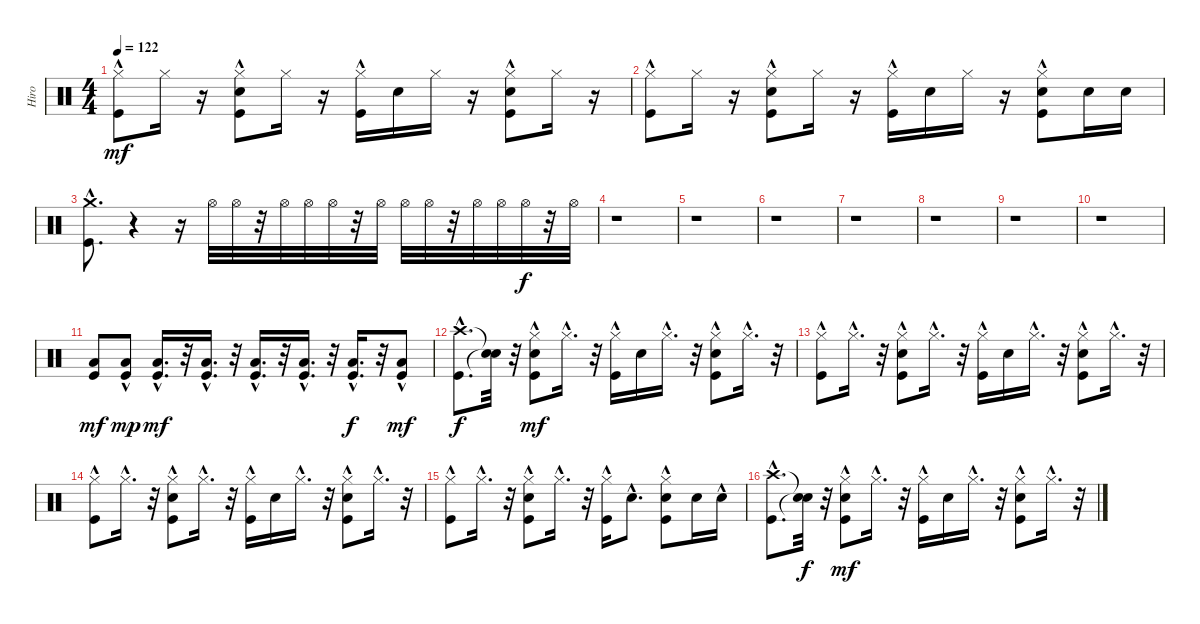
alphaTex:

\track ("Hiro" "Hiro") {instrument percussion}
\staff {score}
\articulation defaults
\ts (4 4)
\tempo 122
\clef neutral
\ks c
("Hi-Hat (closed)" "Kick (hit)"{hac}).8{dy mf} "Hi-Hat (closed)".16 r.16 ("Electric Snare (hit)" "Hi-Hat (closed)" "Kick (hit)"{hac}).8 "Hi-Hat (closed)".16 r.16 ("Hi-Hat (closed)" "Kick (hit)"{hac}).16 "Electric Snare (hit)".16 "Hi-Hat (closed)".16 r.16 ("Electric Snare (hit)"{hac} "Hi-Hat (closed)" "Kick (hit)"{hac}).8 "Hi-Hat (closed)".16 r.16 |
("Hi-Hat (closed)" "Kick (hit)"{hac}).8 "Hi-Hat (closed)".16 r.16 ("Electric Snare (hit)" "Hi-Hat (closed)" "Kick (hit)"{hac}).8 "Hi-Hat (closed)".16 r.16 ("Hi-Hat (closed)" "Kick (hit)"{hac}).16 "Electric Snare (hit)".16 "Hi-Hat (closed)".16 r.16 ("Electric Snare (hit)" "Hi-Hat (closed)"{hac} "Kick (hit)"{hac}).8 "Electric Snare (hit)".16 "Electric Snare (hit)".16 |
("Crash medium (hit)" "Kick (hit)"{hac}).8{d} r.4 r.16 "Hi-Hat (open)".32 "Hi-Hat (open)".32 r.32 "Hi-Hat (open)".32 "Hi-Hat (open)".32 "Hi-Hat (open)".32 r.32 "Hi-Hat (open)".32 "Hi-Hat (open)".32 "Hi-Hat (open)".32 r.32 "Hi-Hat (open)".32 "Hi-Hat (open)".32 "Hi-Hat (open)".32{dy f} r.32 "Hi-Hat (open)".32 |
r.1 |
r.1 |
r.1 |
r.1 |
r.1 |
r.1 |
r.1 |
("Low Tom (hit)" "Kick (hit)").8{dy mf} ("Low Tom (hit)"{hac} "Kick (hit)").8{dy mp} ("Low Tom (hit)"{hac} "Kick (hit)"{hac}).16{d dy mf} r.32 ("Low Tom (hit)"{hac} "Kick (hit)"{hac}).16{d} r.32 ("Low Tom (hit)"{hac} "Kick (hit)"{hac}).16{d} r.32 ("Low Tom (hit)"{hac} "Kick (hit)"{hac}).16{d} r.32 ("Low Tom (hit)"{hac} "Kick (hit)"{hac}).16{d dy f} r.32 ("Low Tom (hit)"{hac} "Kick (hit)").8{dy mf} |
("Kick (hit)"{hac} "Crash high (hit)"{hac}).8{d dy f} ("Snare (hit)"{t} "Snare (hit)"{t}).32 r.32 ("Kick (hit)"{hac} "Electric Snare (hit)"{hac} "Hi-Hat (closed)").8{dy mf} "Hi-Hat (closed)"{hac}.16{d} r.32 ("Kick (hit)"{hac} "Hi-Hat (closed)"{hac}).16 "Electric Snare (hit)".16 "Hi-Hat (closed)"{hac}.16{d} r.32 ("Electric Snare (hit)"{hac} "Hi-Hat (closed)"{hac} "Kick (hit)"{hac}).8 "Hi-Hat (closed)"{hac}.16{d} r.32 |
("Kick (hit)"{hac} "Hi-Hat (closed)"{hac}).8 "Hi-Hat (closed)"{hac}.16{d} r.32 ("Kick (hit)"{hac} "Electric Snare (hit)"{hac} "Hi-Hat (closed)"{hac}).8 "Hi-Hat (closed)"{hac}.16{d} r.32 ("Kick (hit)"{hac} "Hi-Hat (closed)"{hac}).16 "Electric Snare (hit)".16 "Hi-Hat (closed)"{hac}.16{d} r.32 ("Electric Snare (hit)"{hac} "Hi-Hat (closed)"{hac} "Kick (hit)"{hac}).8 "Hi-Hat (closed)"{hac}.16{d} r.32 |
("Kick (hit)"{hac} "Hi-Hat (closed)"{hac}).8 "Hi-Hat (closed)"{hac}.16{d} r.32 ("Kick (hit)"{hac} "Electric Snare (hit)"{hac} "Hi-Hat (closed)"{hac}).8 "Hi-Hat (closed)"{hac}.16{d} r.32 ("Kick (hit)"{hac} "Hi-Hat (closed)"{hac}).16 "Electric Snare (hit)".16 "Hi-Hat (closed)"{hac}.16{d} r.32 ("Electric Snare (hit)"{hac} "Hi-Hat (closed)"{hac} "Kick (hit)"{hac}).8 "Hi-Hat (closed)"{hac}.16{d} r.32 |
("Kick (hit)"{hac} "Hi-Hat (closed)"{hac}).8 "Hi-Hat (closed)"{hac}.16{d} r.32 ("Electric Snare (hit)"{hac} "Kick (hit)"{hac} "Hi-Hat (closed)"{hac}).8 "Hi-Hat (closed)"{hac}.16{d} r.32 ("Kick (hit)"{hac} "Hi-Hat (closed)"{hac}).16 "Electric Snare (hit)"{hac}.8{d} ("Electric Snare (hit)" "Kick (hit)"{hac} "Hi-Hat (closed)"{hac}).8 "Electric Snare (hit)".16 "Electric Snare (hit)"{hac}.16 |
("Kick (hit)"{hac} "Crash high (hit)"{hac}).8{d} ("Snare (hit)"{t} "Snare (hit)"{t}).32{dy f} r.32 ("Kick (hit)"{hac} "Electric Snare (hit)"{hac} "Hi-Hat (closed)").8{dy mf} "Hi-Hat (closed)"{hac}.16{d} r.32 ("Kick (hit)"{hac} "Hi-Hat (closed)"{hac}).16 "Electric Snare (hit)".16 "Hi-Hat (closed)"{hac}.16{d} r.32 ("Electric Snare (hit)"{hac} "Hi-Hat (closed)"{hac} "Kick (hit)"{hac}).8 "Hi-Hat (closed)"{hac}.16{d} r.32
